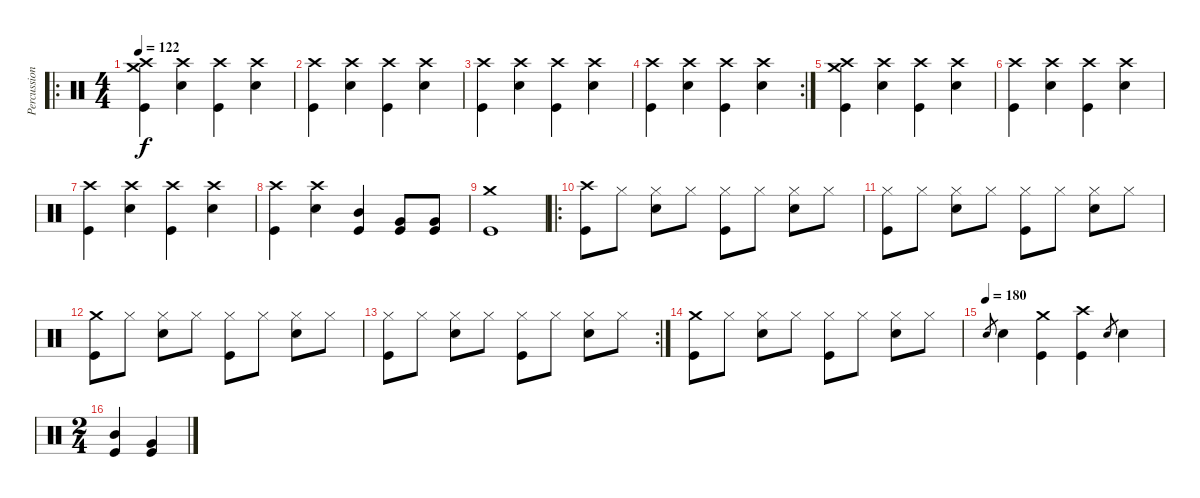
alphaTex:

\track ("Percussion" "Percussion") {instrument percussion}
\staff {score}
\articulation defaults
\ro
\ts (4 4)
\tempo 122
\clef neutral
\ks c
("Crash high (hit)" "Crash medium (hit)" "Kick (hit)").4{dy f} ("Crash high (hit)" "Snare (hit) 2").4 ("Crash high (hit)" "Kick (hit)").4 ("Crash high (hit)" "Snare (hit) 2").4 |
("Crash high (hit)" "Kick (hit)").4 ("Crash high (hit)" "Snare (hit) 2").4 ("Crash high (hit)" "Kick (hit)").4 ("Crash high (hit)" "Snare (hit) 2").4 |
("Crash high (hit)" "Kick (hit)").4 ("Crash high (hit)" "Snare (hit) 2").4 ("Crash high (hit)" "Kick (hit)").4 ("Crash high (hit)" "Snare (hit) 2").4 |
\rc 2
("Crash high (hit)" "Kick (hit)").4 ("Crash high (hit)" "Snare (hit) 2").4 ("Crash high (hit)" "Kick (hit)").4 ("Crash high (hit)" "Snare (hit) 2").4 |
("Crash high (hit)" "Crash medium (hit)" "Kick (hit)").4 ("Crash high (hit)" "Snare (hit) 2").4 ("Crash high (hit)" "Kick (hit)").4 ("Crash high (hit)" "Snare (hit) 2").4 |
("Crash high (hit)" "Kick (hit)").4 ("Crash high (hit)" "Snare (hit) 2").4 ("Crash high (hit)" "Kick (hit)").4 ("Crash high (hit)" "Snare (hit) 2").4 |
("Crash high (hit)" "Kick (hit)").4 ("Crash high (hit)" "Snare (hit) 2").4 ("Crash high (hit)" "Kick (hit)").4 ("Crash high (hit)" "Snare (hit) 2").4 |
("Crash high (hit)" "Kick (hit)").4 ("Crash high (hit)" "Snare (hit) 2").4 ("Mid Tom (hit)" "Kick (hit)").4 ("Very Low Tom (hit)" "Kick (hit)").8 ("Very Low Tom (hit)" "Kick (hit)").8 |
("Crash medium (hit)" "Kick (hit)").1 |
\ro
("Crash high (hit)" "Kick (hit)").8 "Hi-Hat (closed)".8 ("Hi-Hat (closed)" "Snare (hit) 2").8 "Hi-Hat (closed)".8 ("Hi-Hat (closed)" "Kick (hit)").8 "Hi-Hat (closed)".8 ("Hi-Hat (closed)" "Snare (hit) 2").8 "Hi-Hat (closed)".8 |
("Hi-Hat (closed)" "Kick (hit)").8 "Hi-Hat (closed)".8 ("Hi-Hat (closed)" "Snare (hit) 2").8 "Hi-Hat (closed)".8 ("Hi-Hat (closed)" "Kick (hit)").8 "Hi-Hat (closed)".8 ("Hi-Hat (closed)" "Snare (hit) 2").8 "Hi-Hat (closed)".8 |
("Crash medium (hit)" "Kick (hit)").8 "Hi-Hat (closed)".8 ("Hi-Hat (closed)" "Snare (hit) 2").8 "Hi-Hat (closed)".8 ("Hi-Hat (closed)" "Kick (hit)").8 "Hi-Hat (closed)".8 ("Hi-Hat (closed)" "Snare (hit) 2").8 "Hi-Hat (closed)".8 |
\rc 2
("Hi-Hat (closed)" "Kick (hit)").8 "Hi-Hat (closed)".8 ("Hi-Hat (closed)" "Snare (hit) 2").8 "Hi-Hat (closed)".8 ("Hi-Hat (closed)" "Kick (hit)").8 "Hi-Hat (closed)".8 ("Hi-Hat (closed)" "Snare (hit) 2").8 "Hi-Hat (closed)".8 |
("Crash medium (hit)" "Kick (hit)").8 "Hi-Hat (closed)".8 ("Hi-Hat (closed)" "Snare (hit) 2").8 "Hi-Hat (closed)".8 ("Hi-Hat (closed)" "Kick (hit)").8 "Hi-Hat (closed)".8 ("Hi-Hat (closed)" "Snare (hit) 2").8 "Hi-Hat (closed)".8 |
\tempo (180)
"Snare (hit) 2".8{gr} "Snare (hit) 2".4 ("Crash medium (hit)" "Kick (hit)").4 ("Crash high (hit)" "Kick (hit)").4 "Snare (hit) 2".8{gr} "Snare (hit) 2".4 |
\ts (2 4)
("Mid Tom (hit)" "Kick (hit)").4 ("Very Low Tom (hit)" "Kick (hit)").4
